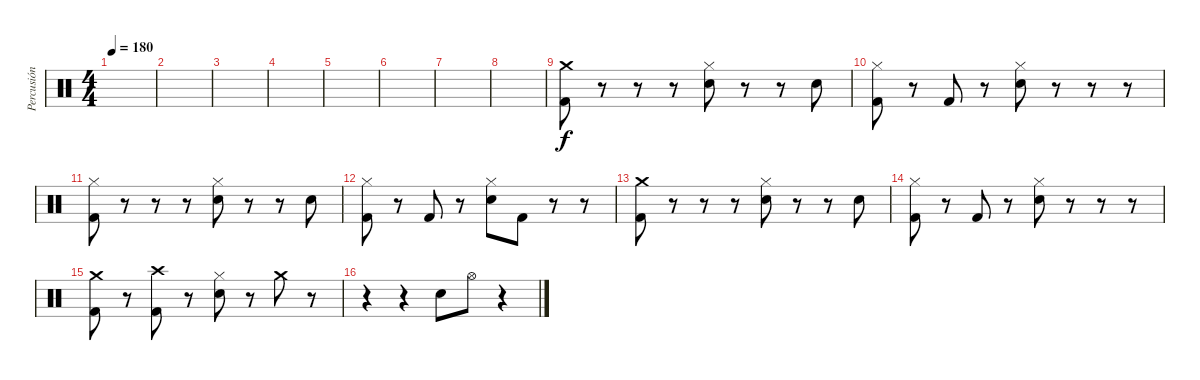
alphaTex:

\track ("Percusión" "Percusión") {instrument percussion}
\staff {score}
\articulation defaults
\ts (4 4)
\tempo 180
\clef neutral
\ks c
|
|
|
|
|
|
|
|
("Crash medium (hit)" "Kick (hit) 2").8 r.8 r.8 r.8 ("Hi-Hat (closed)" "Snare (hit) 2").8 r.8 r.8 "Snare (hit) 2".8 |
("Hi-Hat (closed)" "Kick (hit) 2").8 r.8 "Kick (hit) 2".8 r.8 ("Hi-Hat (closed)" "Snare (hit) 2").8 r.8 r.8 r.8 |
("Hi-Hat (closed)" "Kick (hit) 2").8 r.8 r.8 r.8 ("Hi-Hat (closed)" "Snare (hit) 2").8 r.8 r.8 "Snare (hit) 2".8 |
("Hi-Hat (closed)" "Kick (hit) 2").8 r.8 "Kick (hit) 2".8 r.8 ("Hi-Hat (closed)" "Snare (hit) 2").8 "Kick (hit) 2".8 r.8 r.8 |
("Crash medium (hit)" "Kick (hit) 2").8 r.8 r.8 r.8 ("Hi-Hat (closed)" "Snare (hit) 2").8 r.8 r.8 "Snare (hit) 2".8 |
("Hi-Hat (closed)" "Kick (hit) 2").8 r.8 "Kick (hit) 2".8 r.8 ("Hi-Hat (closed)" "Snare (hit) 2").8 r.8 r.8 r.8 |
("Crash medium (hit)" "Kick (hit) 2").8 r.8 ("Crash high (hit)" "Kick (hit) 2").8 r.8 ("Hi-Hat (closed)" "Snare (hit) 2").8 r.8 "Crash medium (hit)".8 r.8 |
r.4 r.4 "Snare (hit) 2".8 "Hi-Hat (open)".8 r.4
